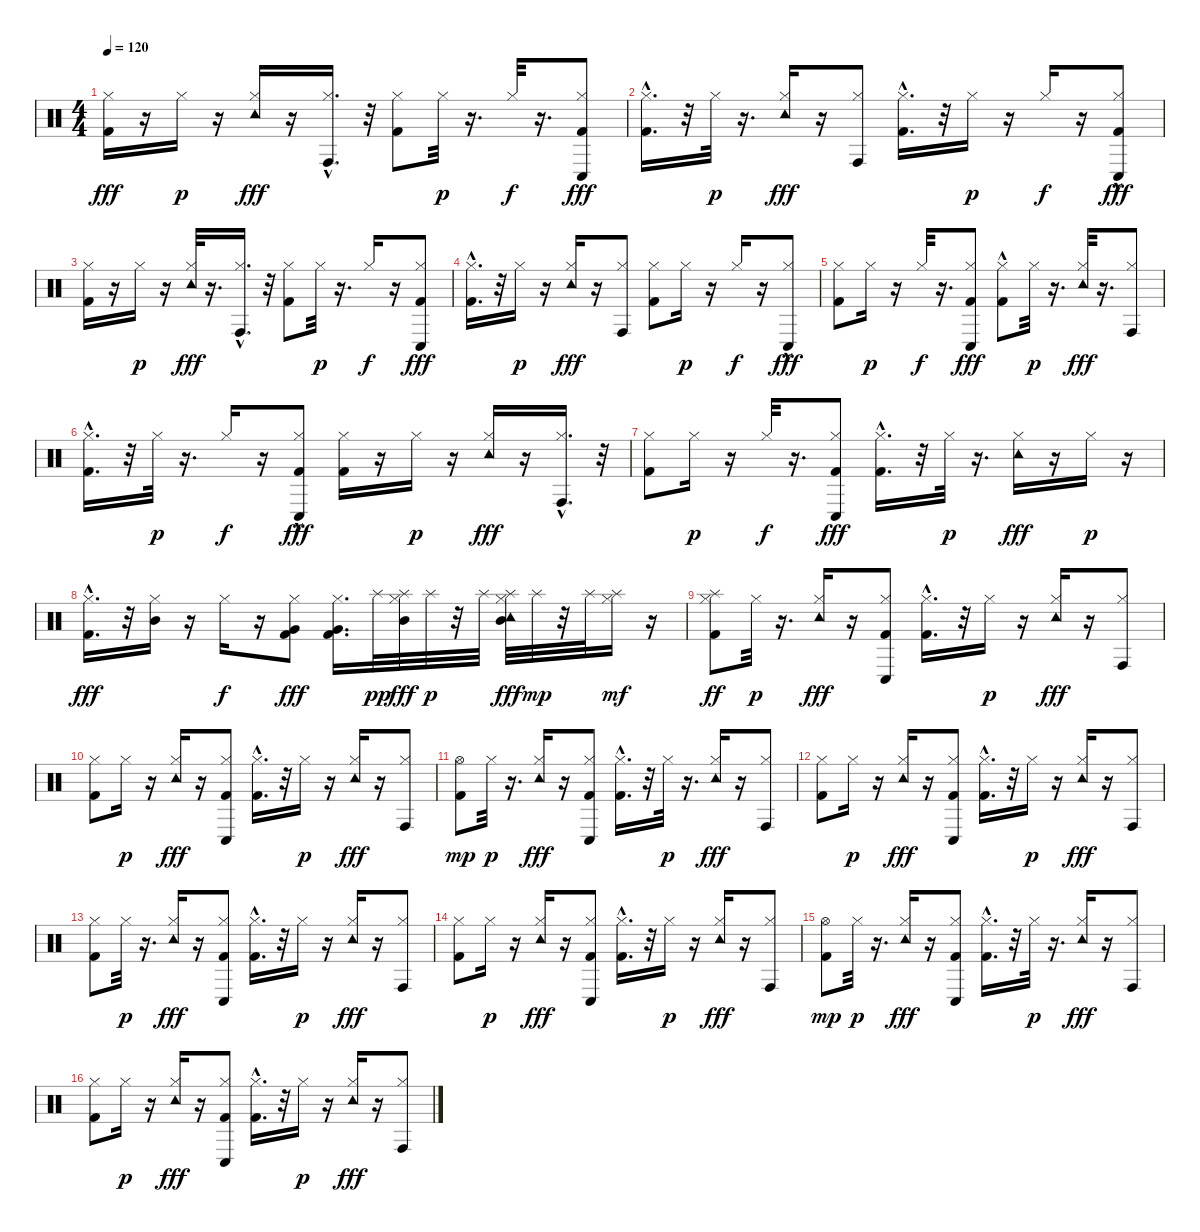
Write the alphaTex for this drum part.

\track "" {instrument percussion}
\staff {score}
\articulation defaults
\ts (4 4)
\tempo 120
\clef neutral
\ks c
("Kick (hit) 2" "Hi-Hat (closed)").16{dy fff} r.16 "Hi-Hat (closed)".16{dy p} r.16 ("Hi-Hat (closed)" "Tambourine (hit)").16{dy fff} r.16 ("Hi-Hat (closed)" "Conga high (hit)"{hac}).16{d} r.32 ("Kick (hit) 2" "Hi-Hat (closed)").8 "Hi-Hat (closed)".32{dy p} r.16{d} "Hi-Hat (closed)".32{dy f} r.16{d} ("Kick (hit) 2" "Hi-Hat (closed)" "Conga low (hit)").8{dy fff} |
("Kick (hit) 2"{hac} "Hi-Hat (closed)").16{d} r.32 "Hi-Hat (closed)".32{dy p} r.16{d} ("Hi-Hat (closed)" "Tambourine (hit)").16{dy fff} r.16 ("Hi-Hat (closed)" "Conga high (hit)").8 ("Kick (hit) 2"{hac} "Hi-Hat (closed)").16{d} r.32 "Hi-Hat (closed)".16{dy p} r.16 "Hi-Hat (closed)".16{dy f} r.16 ("Kick (hit) 2" "Hi-Hat (closed)" "Conga low (hit)"{hac}).8{dy fff} |
("Kick (hit) 2" "Hi-Hat (closed)").16 r.16 "Hi-Hat (closed)".16{dy p} r.16 ("Hi-Hat (closed)" "Tambourine (hit)").32{dy fff} r.16{d} ("Hi-Hat (closed)" "Conga high (hit)"{hac}).16{d} r.32 ("Kick (hit) 2" "Hi-Hat (closed)").8 "Hi-Hat (closed)".32{dy p} r.16{d} "Hi-Hat (closed)".16{dy f} r.16 ("Kick (hit) 2" "Hi-Hat (closed)" "Conga low (hit)").8{dy fff} |
("Kick (hit) 2"{hac} "Hi-Hat (closed)").16{d} r.32 "Hi-Hat (closed)".16{dy p} r.16 ("Hi-Hat (closed)" "Tambourine (hit)").16{dy fff} r.16 ("Hi-Hat (closed)" "Conga high (hit)").8 ("Kick (hit) 2" "Hi-Hat (closed)").8 "Hi-Hat (closed)".16{dy p} r.16 "Hi-Hat (closed)".16{dy f} r.16 ("Hi-Hat (closed)" "Conga low (hit)"{hac}).8{dy fff} |
("Kick (hit) 2" "Hi-Hat (closed)").8 "Hi-Hat (closed)".16{dy p} r.16 "Hi-Hat (closed)".32{dy f} r.16{d} ("Kick (hit) 2" "Hi-Hat (closed)" "Conga low (hit)").8{dy fff} ("Kick (hit) 2"{hac} "Hi-Hat (closed)").8 "Hi-Hat (closed)".32{dy p} r.16{d} ("Hi-Hat (closed)" "Tambourine (hit)").32{dy fff} r.16{d} ("Hi-Hat (closed)" "Conga high (hit)").8 |
("Kick (hit) 2"{hac} "Hi-Hat (closed)").16{d} r.32 "Hi-Hat (closed)".32{dy p} r.16{d} "Hi-Hat (closed)".16{dy f} r.16 ("Kick (hit) 2" "Hi-Hat (closed)" "Conga low (hit)"{hac}).8{dy fff} ("Kick (hit) 2" "Hi-Hat (closed)").16 r.16 "Hi-Hat (closed)".16{dy p} r.16 ("Hi-Hat (closed)" "Tambourine (hit)").16{dy fff} r.16 ("Hi-Hat (closed)" "Conga high (hit)"{hac}).16{d} r.32 |
("Kick (hit) 2" "Hi-Hat (closed)").8 "Hi-Hat (closed)".16{dy p} r.16 "Hi-Hat (closed)".32{dy f} r.16{d} ("Kick (hit) 2" "Hi-Hat (closed)" "Conga low (hit)").8{dy fff} ("Kick (hit) 2"{hac} "Hi-Hat (closed)").16{d} r.32 "Hi-Hat (closed)".32{dy p} r.16{d} ("Hi-Hat (closed)" "Tambourine (hit)").16{dy fff} r.16 "Hi-Hat (closed)".16{dy p} r.16 |
("Kick (hit) 2"{hac} "Hi-Hat (closed)").16{d dy fff} r.32 ("Hi-Hat (closed)" "Mid Tom (hit)").16 r.16 "Hi-Hat (closed)".16{dy f} r.16 ("Kick (hit) 2" "Hi-Hat (closed)" "Very Low Tom (hit)").8{dy fff} ("Kick (hit) 2" "Hi-Hat (closed)" "Very Low Tom (hit)").16{d} "Splash (hit)".32{dy pp} ("Splash (hit)" "Hi-Hat (closed)" "Mid Tom (hit)").32{dy fff} "Splash (hit)".32{dy p} r.32 "Splash (hit)".32 ("Splash (hit)" "Hi-Hat (closed)" "Mid Tom (hit)" "Tambourine (hit)").32{dy fff} "Splash (hit)".32{dy mp} r.32 "Splash (hit)".32 ("Hi-Hat (closed)" "Splash (hit)").16{dy mf} r.16 |
("Kick (hit) 2" "Hi-Hat (closed)" "Splash (hit)").8{dy ff} "Hi-Hat (closed)".32{dy p} r.16{d} ("Hi-Hat (closed)" "Tambourine (hit)").16{dy fff} r.16 ("Kick (hit) 2" "Hi-Hat (closed)" "Conga low (hit)").8 ("Kick (hit) 2"{hac} "Hi-Hat (closed)").16{d} r.32 "Hi-Hat (closed)".16{dy p} r.16 ("Hi-Hat (closed)" "Tambourine (hit)").16{dy fff} r.16 ("Hi-Hat (closed)" "Conga high (hit)").8 |
("Kick (hit) 2" "Hi-Hat (closed)").8 "Hi-Hat (closed)".16{dy p} r.16 ("Hi-Hat (closed)" "Tambourine (hit)").16{dy fff} r.16 ("Kick (hit) 2" "Hi-Hat (closed)" "Conga low (hit)").8 ("Kick (hit) 2"{hac} "Hi-Hat (closed)").16{d} r.32 "Hi-Hat (closed)".16{dy p} r.16 ("Hi-Hat (closed)" "Tambourine (hit)").16{dy fff} r.16 ("Hi-Hat (closed)" "Conga high (hit)").8 |
("Kick (hit) 2" "Hi-Hat (open)").8{dy mp} "Hi-Hat (closed)".32{dy p} r.16{d} ("Hi-Hat (closed)" "Tambourine (hit)").16{dy fff} r.16 ("Kick (hit) 2" "Hi-Hat (closed)" "Conga low (hit)").8 ("Kick (hit) 2"{hac} "Hi-Hat (closed)").16{d} r.32 "Hi-Hat (closed)".32{dy p} r.16{d} ("Hi-Hat (closed)" "Tambourine (hit)").16{dy fff} r.16 ("Hi-Hat (closed)" "Conga high (hit)").8 |
("Kick (hit) 2" "Hi-Hat (closed)").8 "Hi-Hat (closed)".16{dy p} r.16 ("Hi-Hat (closed)" "Tambourine (hit)").16{dy fff} r.16 ("Kick (hit) 2" "Hi-Hat (closed)" "Conga low (hit)").8 ("Kick (hit) 2"{hac} "Hi-Hat (closed)").16{d} r.32 "Hi-Hat (closed)".16{dy p} r.16 ("Hi-Hat (closed)" "Tambourine (hit)").16{dy fff} r.16 ("Hi-Hat (closed)" "Conga high (hit)").8 |
("Kick (hit) 2" "Hi-Hat (closed)").8 "Hi-Hat (closed)".32{dy p} r.16{d} ("Hi-Hat (closed)" "Tambourine (hit)").16{dy fff} r.16 ("Kick (hit) 2" "Hi-Hat (closed)" "Conga low (hit)").8 ("Kick (hit) 2"{hac} "Hi-Hat (closed)").16{d} r.32 "Hi-Hat (closed)".16{dy p} r.16 ("Hi-Hat (closed)" "Tambourine (hit)").16{dy fff} r.16 ("Hi-Hat (closed)" "Conga high (hit)").8 |
("Kick (hit) 2" "Hi-Hat (closed)").8 "Hi-Hat (closed)".16{dy p} r.16 ("Hi-Hat (closed)" "Tambourine (hit)").16{dy fff} r.16 ("Kick (hit) 2" "Hi-Hat (closed)" "Conga low (hit)").8 ("Kick (hit) 2"{hac} "Hi-Hat (closed)").16{d} r.32 "Hi-Hat (closed)".16{dy p} r.16 ("Hi-Hat (closed)" "Tambourine (hit)").16{dy fff} r.16 ("Hi-Hat (closed)" "Conga high (hit)").8 |
("Kick (hit) 2" "Hi-Hat (open)").8{dy mp} "Hi-Hat (closed)".32{dy p} r.16{d} ("Hi-Hat (closed)" "Tambourine (hit)").16{dy fff} r.16 ("Kick (hit) 2" "Hi-Hat (closed)" "Conga low (hit)").8 ("Kick (hit) 2"{hac} "Hi-Hat (closed)").16{d} r.32 "Hi-Hat (closed)".32{dy p} r.16{d} ("Hi-Hat (closed)" "Tambourine (hit)").16{dy fff} r.16 ("Hi-Hat (closed)" "Conga high (hit)").8 |
("Kick (hit) 2" "Hi-Hat (closed)").8 "Hi-Hat (closed)".16{dy p} r.16 ("Hi-Hat (closed)" "Tambourine (hit)").16{dy fff} r.16 ("Kick (hit) 2" "Hi-Hat (closed)" "Conga low (hit)").8 ("Kick (hit) 2"{hac} "Hi-Hat (closed)").16{d} r.32 "Hi-Hat (closed)".16{dy p} r.16 ("Hi-Hat (closed)" "Tambourine (hit)").16{dy fff} r.16 ("Hi-Hat (closed)" "Conga high (hit)").8
